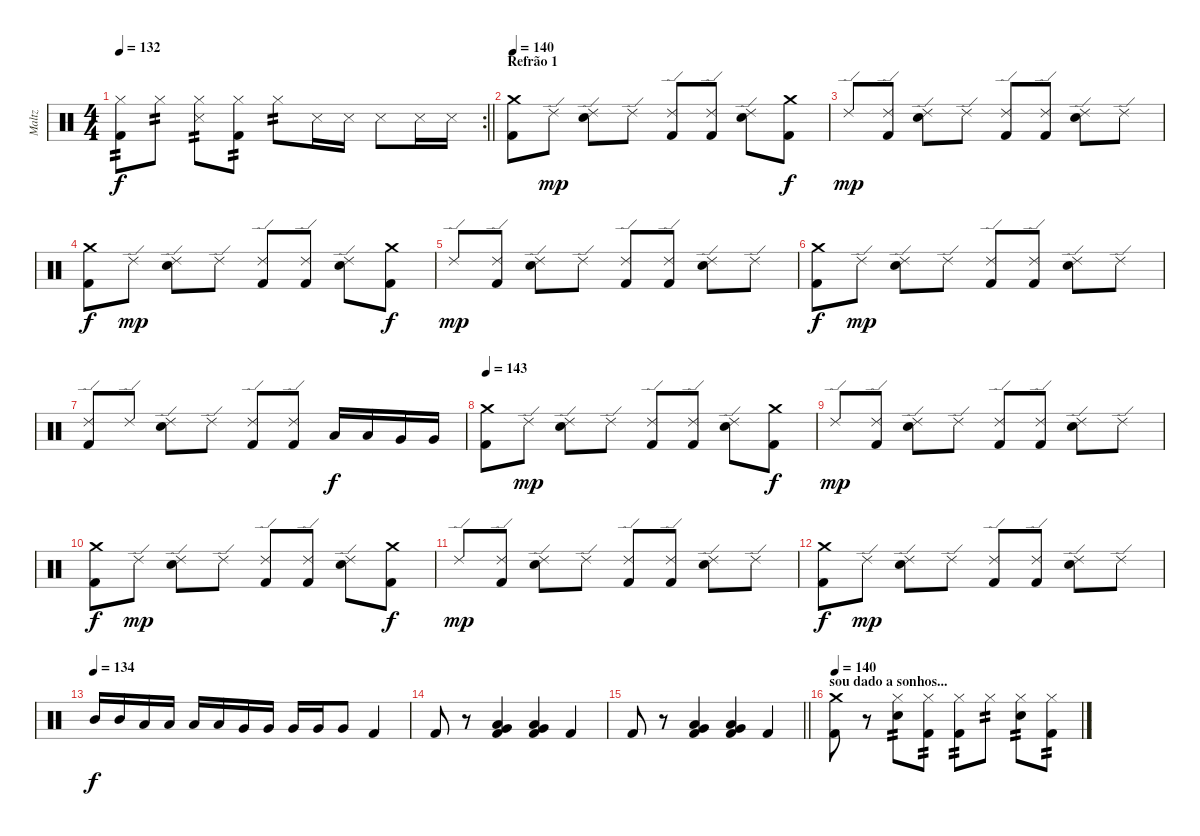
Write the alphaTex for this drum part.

\track ("Maltz" "Maltz") {instrument percussion}
\staff {score}
\articulation defaults
\rc 2
\ts (4 4)
\tempo 132
\clef neutral
\barLineRight lightlight
\ks c
("Hi-Hat (closed)" "Kick (hit) 2").8{tp 2 dy f} "Hi-Hat (closed)".8{tp 2} ("Hi-Hat (closed)" "Snare (side stick) 3").8{tp 2} ("Hi-Hat (closed)" "Kick (hit) 2").8{tp 2} "Hi-Hat (closed)".8{tp 2} "Snare (side stick) 3".16 "Snare (side stick) 3".16 "Snare (side stick) 3".8 "Snare (side stick) 3".16 "Snare (side stick) 3".16 |
\section ("" "Refrão 1")
\tempo 140
("Crash medium (hit)" "Kick (hit) 2").8 "Ride (edge) 2".8{dy mp} ("Ride (edge) 2" "Electric Snare (hit)").8 "Ride (edge) 2".8 ("Ride (edge) 2" "Kick (hit) 2").8 ("Ride (edge) 2" "Kick (hit) 2").8 ("Ride (edge) 2" "Electric Snare (hit)").8 ("Crash medium (hit)" "Kick (hit) 2").8{dy f} |
"Ride (edge) 2".8{dy mp} ("Ride (edge) 2" "Kick (hit) 2").8 ("Ride (edge) 2" "Electric Snare (hit)").8 "Ride (edge) 2".8 ("Ride (edge) 2" "Kick (hit) 2").8 ("Ride (edge) 2" "Kick (hit) 2").8 ("Ride (edge) 2" "Electric Snare (hit)").8 "Ride (edge) 2".8 |
("Crash medium (hit)" "Kick (hit) 2").8{dy f} "Ride (edge) 2".8{dy mp} ("Ride (edge) 2" "Electric Snare (hit)").8 "Ride (edge) 2".8 ("Ride (edge) 2" "Kick (hit) 2").8 ("Ride (edge) 2" "Kick (hit) 2").8 ("Ride (edge) 2" "Electric Snare (hit)").8 ("Crash medium (hit)" "Kick (hit) 2").8{dy f} |
"Ride (edge) 2".8{dy mp} ("Ride (edge) 2" "Kick (hit) 2").8 ("Ride (edge) 2" "Electric Snare (hit)").8 "Ride (edge) 2".8 ("Ride (edge) 2" "Kick (hit) 2").8 ("Ride (edge) 2" "Kick (hit) 2").8 ("Ride (edge) 2" "Electric Snare (hit)").8 "Ride (edge) 2".8 |
("Crash medium (hit)" "Kick (hit) 2").8{dy f} "Ride (edge) 2".8{dy mp} ("Ride (edge) 2" "Electric Snare (hit)").8 "Ride (edge) 2".8 ("Ride (edge) 2" "Kick (hit) 2").8 ("Ride (edge) 2" "Kick (hit) 2").8 ("Ride (edge) 2" "Electric Snare (hit)").8 "Ride (edge) 2".8 |
("Ride (edge) 2" "Kick (hit) 2").8 "Ride (edge) 2".8 ("Ride (edge) 2" "Electric Snare (hit)").8 "Ride (edge) 2".8 ("Ride (edge) 2" "Kick (hit) 2").8 ("Ride (edge) 2" "Kick (hit) 2").8 "Low Tom (hit)".16{dy f} "Low Tom (hit)".16 "Very Low Tom (hit)".16 "Very Low Tom (hit)".16 |
\tempo 143
("Crash medium (hit)" "Kick (hit) 2").8 "Ride (edge) 2".8{dy mp} ("Ride (edge) 2" "Electric Snare (hit)").8 "Ride (edge) 2".8 ("Ride (edge) 2" "Kick (hit) 2").8 ("Ride (edge) 2" "Kick (hit) 2").8 ("Ride (edge) 2" "Electric Snare (hit)").8 ("Crash medium (hit)" "Kick (hit) 2").8{dy f} |
"Ride (edge) 2".8{dy mp} ("Ride (edge) 2" "Kick (hit) 2").8 ("Ride (edge) 2" "Electric Snare (hit)").8 "Ride (edge) 2".8 ("Ride (edge) 2" "Kick (hit) 2").8 ("Ride (edge) 2" "Kick (hit) 2").8 ("Ride (edge) 2" "Electric Snare (hit)").8 "Ride (edge) 2".8 |
("Crash medium (hit)" "Kick (hit) 2").8{dy f} "Ride (edge) 2".8{dy mp} ("Ride (edge) 2" "Electric Snare (hit)").8 "Ride (edge) 2".8 ("Ride (edge) 2" "Kick (hit) 2").8 ("Ride (edge) 2" "Kick (hit) 2").8 ("Ride (edge) 2" "Electric Snare (hit)").8 ("Crash medium (hit)" "Kick (hit) 2").8{dy f} |
"Ride (edge) 2".8{dy mp} ("Ride (edge) 2" "Kick (hit) 2").8 ("Ride (edge) 2" "Electric Snare (hit)").8 "Ride (edge) 2".8 ("Ride (edge) 2" "Kick (hit) 2").8 ("Ride (edge) 2" "Kick (hit) 2").8 ("Ride (edge) 2" "Electric Snare (hit)").8 "Ride (edge) 2".8 |
("Crash medium (hit)" "Kick (hit) 2").8{dy f} "Ride (edge) 2".8{dy mp} ("Ride (edge) 2" "Electric Snare (hit)").8 "Ride (edge) 2".8 ("Ride (edge) 2" "Kick (hit) 2").8 ("Ride (edge) 2" "Kick (hit) 2").8 ("Ride (edge) 2" "Electric Snare (hit)").8 "Ride (edge) 2".8 |
\tempo (134)
"Mid Tom (hit)".16{dy f} "Mid Tom (hit)".16 "Low Tom (hit)".16 "Low Tom (hit)".16 "Low Tom (hit)".16 "Low Tom (hit)".16 "Very Low Tom (hit)".16 "Very Low Tom (hit)".16 "Very Low Tom (hit)".16 "Very Low Tom (hit)".16 "Very Low Tom (hit)".8 "Kick (hit) 2".4 |
"Kick (hit) 2".8 r.8 ("Low Tom (hit)" "Very Low Tom (hit)" "Kick (hit) 2").4 ("Low Tom (hit)" "Very Low Tom (hit)" "Kick (hit) 2").4 "Kick (hit) 2".4 |
\barLineRight lightlight "Kick (hit) 2".8
r.8 ("Low Tom (hit)" "Very Low Tom (hit)" "Kick (hit) 2").4 ("Low Tom (hit)" "Very Low Tom (hit)" "Kick (hit) 2").4 "Kick (hit) 2".4 |
\section ("" "sou dado a sonhos...")
\tempo 140
("Crash medium (hit)" "Kick (hit) 2").8 r.8 ("Hi-Hat (closed)" "Electric Snare (hit)").8{tp 2} ("Hi-Hat (closed)" "Kick (hit) 2").8{tp 2} ("Hi-Hat (closed)" "Kick (hit) 2").8{tp 2} "Hi-Hat (closed)".8{tp 2} ("Hi-Hat (closed)" "Electric Snare (hit)").8{tp 2} ("Hi-Hat (closed)" "Kick (hit) 2").8{tp 2}
